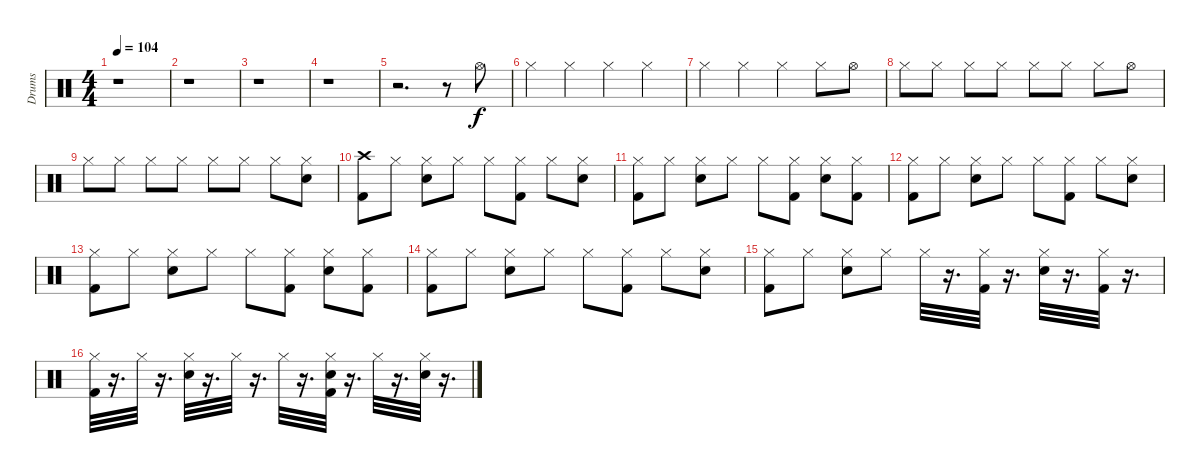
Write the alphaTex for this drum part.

\track ("Drums" "Drums") {instrument percussion}
\staff {score}
\articulation defaults
\ts (4 4)
\tempo 104
\clef neutral
\ks c
r.1{dy f} |
r.1 |
r.1 |
r.1 |
r.2{d} r.8 "Hi-Hat (open)".8 |
"Hi-Hat (closed)".4 "Hi-Hat (closed)".4 "Hi-Hat (closed)".4 "Hi-Hat (closed)".4 |
"Hi-Hat (closed)".4 "Hi-Hat (closed)".4 "Hi-Hat (closed)".4 "Hi-Hat (closed)".8 "Hi-Hat (open)".8 |
"Hi-Hat (closed)".8 "Hi-Hat (closed)".8 "Hi-Hat (closed)".8 "Hi-Hat (closed)".8 "Hi-Hat (closed)".8 "Hi-Hat (closed)".8 "Hi-Hat (closed)".8 "Hi-Hat (open)".8 |
"Hi-Hat (closed)".8 "Hi-Hat (closed)".8 "Hi-Hat (closed)".8 "Hi-Hat (closed)".8 "Hi-Hat (closed)".8 "Hi-Hat (closed)".8 "Hi-Hat (closed)".8 ("Hi-Hat (closed)" "Snare (hit) 2").8 |
("Crash high (hit)" "Kick (hit) 2").8 "Hi-Hat (closed)".8 ("Hi-Hat (closed)" "Snare (hit) 2").8 "Hi-Hat (closed)".8 "Hi-Hat (closed)".8 ("Hi-Hat (closed)" "Kick (hit) 2").8 "Hi-Hat (closed)".8 ("Hi-Hat (closed)" "Snare (hit) 2").8 |
("Hi-Hat (closed)" "Kick (hit) 2").8 "Hi-Hat (closed)".8 ("Hi-Hat (closed)" "Snare (hit) 2").8 "Hi-Hat (closed)".8 "Hi-Hat (closed)".8 ("Kick (hit) 2" "Hi-Hat (closed)").8 ("Snare (hit) 2" "Hi-Hat (closed)").8 ("Kick (hit) 2" "Hi-Hat (closed)").8 |
("Hi-Hat (closed)" "Kick (hit) 2").8 "Hi-Hat (closed)".8 ("Hi-Hat (closed)" "Snare (hit) 2").8 "Hi-Hat (closed)".8 "Hi-Hat (closed)".8 ("Hi-Hat (closed)" "Kick (hit) 2").8 "Hi-Hat (closed)".8 ("Hi-Hat (closed)" "Snare (hit) 2").8 |
("Hi-Hat (closed)" "Kick (hit) 2").8 "Hi-Hat (closed)".8 ("Hi-Hat (closed)" "Snare (hit) 2").8 "Hi-Hat (closed)".8 "Hi-Hat (closed)".8 ("Kick (hit) 2" "Hi-Hat (closed)").8 ("Snare (hit) 2" "Hi-Hat (closed)").8 ("Kick (hit) 2" "Hi-Hat (closed)").8 |
("Hi-Hat (closed)" "Kick (hit) 2").8 "Hi-Hat (closed)".8 ("Hi-Hat (closed)" "Snare (hit) 2").8 "Hi-Hat (closed)".8 "Hi-Hat (closed)".8 ("Hi-Hat (closed)" "Kick (hit) 2").8 "Hi-Hat (closed)".8 ("Hi-Hat (closed)" "Snare (hit) 2").8 |
("Hi-Hat (closed)" "Kick (hit) 2").8 "Hi-Hat (closed)".8 ("Hi-Hat (closed)" "Snare (hit) 2").8 "Hi-Hat (closed)".8 "Hi-Hat (closed)".32 r.16{d} ("Kick (hit) 2" "Hi-Hat (closed)").32 r.16{d} ("Snare (hit) 2" "Hi-Hat (closed)").32 r.16{d} ("Kick (hit) 2" "Hi-Hat (closed)").32 r.16{d} |
("Hi-Hat (closed)" "Kick (hit) 2").32 r.16{d} "Hi-Hat (closed)".32 r.16{d} ("Hi-Hat (closed)" "Snare (hit) 2").32 r.16{d} "Hi-Hat (closed)".32 r.16{d} "Hi-Hat (closed)".32 r.16{d} ("Snare (hit) 2" "Hi-Hat (closed)" "Kick (hit) 2").32 r.16{d} "Hi-Hat (closed)".32 r.16{d} ("Hi-Hat (closed)" "Snare (hit) 2").32 r.16{d}
